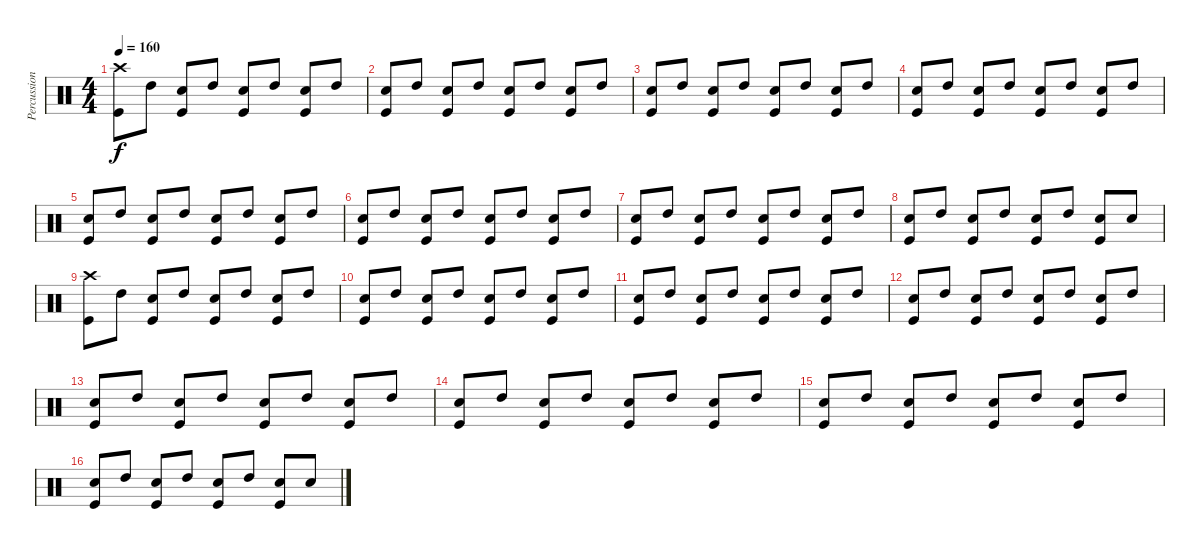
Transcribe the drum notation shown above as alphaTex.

\track ("Percussioni" "Percussion") {instrument percussion}
\staff {score}
\articulation defaults
\ts (4 4)
\tempo 160
\clef neutral
\ks c
("Crash high (hit)" "Kick (hit)").8{dy f} "High Tom (hit)".8 ("Snare (hit) 2" "Kick (hit)").8 "High Tom (hit)".8 ("Snare (hit) 2" "Kick (hit)").8 "High Tom (hit)".8 ("Snare (hit) 2" "Kick (hit)").8 "High Tom (hit)".8 |
("Snare (hit) 2" "Kick (hit)").8 "High Tom (hit)".8 ("Snare (hit) 2" "Kick (hit)").8 "High Tom (hit)".8 ("Snare (hit) 2" "Kick (hit)").8 "High Tom (hit)".8 ("Snare (hit) 2" "Kick (hit)").8 "High Tom (hit)".8 |
("Snare (hit) 2" "Kick (hit)").8 "High Tom (hit)".8 ("Snare (hit) 2" "Kick (hit)").8 "High Tom (hit)".8 ("Snare (hit) 2" "Kick (hit)").8 "High Tom (hit)".8 ("Snare (hit) 2" "Kick (hit)").8 "High Tom (hit)".8 |
("Snare (hit) 2" "Kick (hit)").8 "High Tom (hit)".8 ("Snare (hit) 2" "Kick (hit)").8 "High Tom (hit)".8 ("Snare (hit) 2" "Kick (hit)").8 "High Tom (hit)".8 ("Snare (hit) 2" "Kick (hit)").8 "High Tom (hit)".8 |
("Snare (hit) 2" "Kick (hit)").8 "High Tom (hit)".8 ("Snare (hit) 2" "Kick (hit)").8 "High Tom (hit)".8 ("Snare (hit) 2" "Kick (hit)").8 "High Tom (hit)".8 ("Snare (hit) 2" "Kick (hit)").8 "High Tom (hit)".8 |
("Snare (hit) 2" "Kick (hit)").8 "High Tom (hit)".8 ("Snare (hit) 2" "Kick (hit)").8 "High Tom (hit)".8 ("Snare (hit) 2" "Kick (hit)").8 "High Tom (hit)".8 ("Snare (hit) 2" "Kick (hit)").8 "High Tom (hit)".8 |
("Snare (hit) 2" "Kick (hit)").8 "High Tom (hit)".8 ("Snare (hit) 2" "Kick (hit)").8 "High Tom (hit)".8 ("Snare (hit) 2" "Kick (hit)").8 "High Tom (hit)".8 ("Snare (hit) 2" "Kick (hit)").8 "High Tom (hit)".8 |
("Snare (hit) 2" "Kick (hit)").8 "High Tom (hit)".8 ("Snare (hit) 2" "Kick (hit)").8 "High Tom (hit)".8 ("Snare (hit) 2" "Kick (hit)").8 "High Tom (hit)".8 ("Snare (hit) 2" "Kick (hit)").8 "Snare (hit) 2".8 |
("Crash high (hit)" "Kick (hit)").8 "High Tom (hit)".8 ("Snare (hit) 2" "Kick (hit)").8 "High Tom (hit)".8 ("Snare (hit) 2" "Kick (hit)").8 "High Tom (hit)".8 ("Snare (hit) 2" "Kick (hit)").8 "High Tom (hit)".8 |
("Snare (hit) 2" "Kick (hit)").8 "High Tom (hit)".8 ("Snare (hit) 2" "Kick (hit)").8 "High Tom (hit)".8 ("Snare (hit) 2" "Kick (hit)").8 "High Tom (hit)".8 ("Snare (hit) 2" "Kick (hit)").8 "High Tom (hit)".8 |
("Snare (hit) 2" "Kick (hit)").8 "High Tom (hit)".8 ("Snare (hit) 2" "Kick (hit)").8 "High Tom (hit)".8 ("Snare (hit) 2" "Kick (hit)").8 "High Tom (hit)".8 ("Snare (hit) 2" "Kick (hit)").8 "High Tom (hit)".8 |
("Snare (hit) 2" "Kick (hit)").8 "High Tom (hit)".8 ("Snare (hit) 2" "Kick (hit)").8 "High Tom (hit)".8 ("Snare (hit) 2" "Kick (hit)").8 "High Tom (hit)".8 ("Snare (hit) 2" "Kick (hit)").8 "High Tom (hit)".8 |
("Snare (hit) 2" "Kick (hit)").8 "High Tom (hit)".8 ("Snare (hit) 2" "Kick (hit)").8 "High Tom (hit)".8 ("Snare (hit) 2" "Kick (hit)").8 "High Tom (hit)".8 ("Snare (hit) 2" "Kick (hit)").8 "High Tom (hit)".8 |
("Snare (hit) 2" "Kick (hit)").8 "High Tom (hit)".8 ("Snare (hit) 2" "Kick (hit)").8 "High Tom (hit)".8 ("Snare (hit) 2" "Kick (hit)").8 "High Tom (hit)".8 ("Snare (hit) 2" "Kick (hit)").8 "High Tom (hit)".8 |
("Snare (hit) 2" "Kick (hit)").8 "High Tom (hit)".8 ("Snare (hit) 2" "Kick (hit)").8 "High Tom (hit)".8 ("Snare (hit) 2" "Kick (hit)").8 "High Tom (hit)".8 ("Snare (hit) 2" "Kick (hit)").8 "High Tom (hit)".8 |
("Snare (hit) 2" "Kick (hit)").8 "High Tom (hit)".8 ("Snare (hit) 2" "Kick (hit)").8 "High Tom (hit)".8 ("Snare (hit) 2" "Kick (hit)").8 "High Tom (hit)".8 ("Snare (hit) 2" "Kick (hit)").8 "Snare (hit) 2".8
